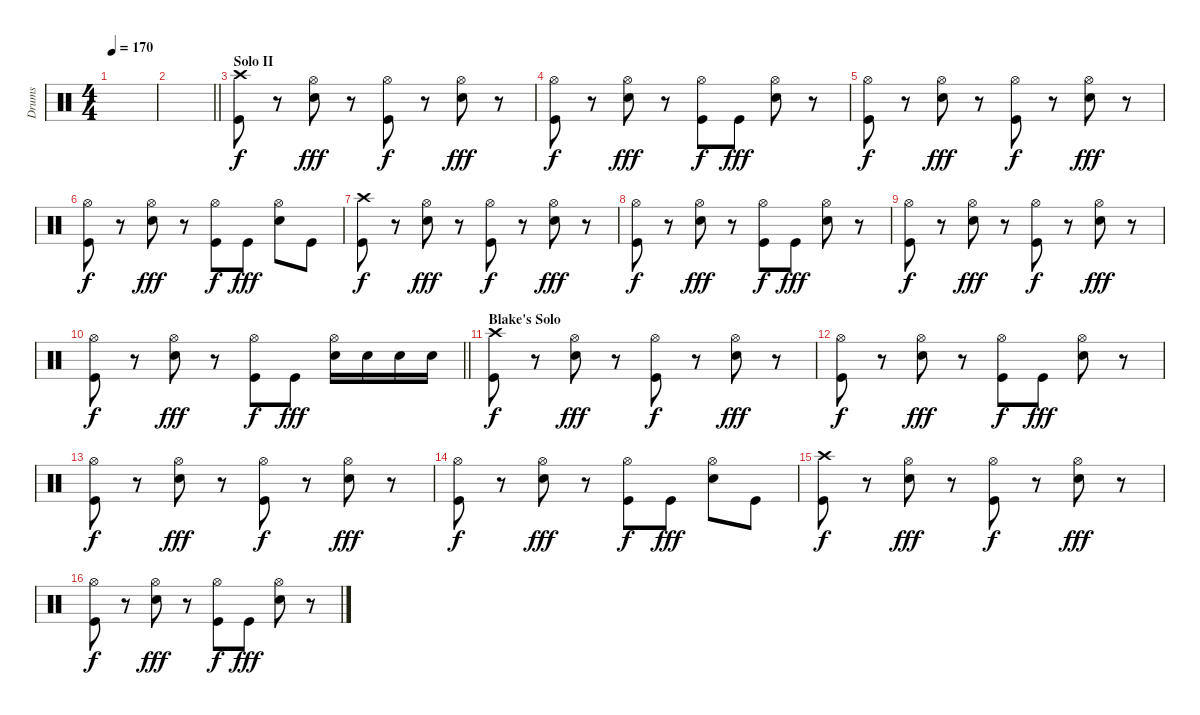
\track ("Drums" "Drums") {instrument percussion}
\staff {score}
\articulation defaults
\ts (4 4)
\tempo 170
\clef neutral
\ks c
|
\barLineRight lightlight
|
\section ("" "Solo II")
("Crash high (hit)" "Kick (hit)").8{dy f} r.8 ("Hi-Hat (open)" "Snare (hit) 2").8{dy fff} r.8 ("Hi-Hat (open)" "Kick (hit)").8{dy f} r.8 ("Hi-Hat (open)" "Snare (hit) 2").8{dy fff} r.8 |
("Hi-Hat (open)" "Kick (hit)").8{dy f} r.8 ("Hi-Hat (open)" "Snare (hit) 2").8{dy fff} r.8 ("Hi-Hat (open)" "Kick (hit)").8{dy f} "Kick (hit)".8{dy fff} ("Hi-Hat (open)" "Snare (hit) 2").8 r.8 |
("Hi-Hat (open)" "Kick (hit)").8{dy f} r.8 ("Hi-Hat (open)" "Snare (hit) 2").8{dy fff} r.8 ("Hi-Hat (open)" "Kick (hit)").8{dy f} r.8 ("Hi-Hat (open)" "Snare (hit) 2").8{dy fff} r.8 |
("Hi-Hat (open)" "Kick (hit)").8{dy f} r.8 ("Hi-Hat (open)" "Snare (hit) 2").8{dy fff} r.8 ("Hi-Hat (open)" "Kick (hit)").8{dy f} "Kick (hit)".8{dy fff} ("Hi-Hat (open)" "Snare (hit) 2").8 "Kick (hit)".8 |
("Crash high (hit)" "Kick (hit)").8{dy f} r.8 ("Hi-Hat (open)" "Snare (hit) 2").8{dy fff} r.8 ("Hi-Hat (open)" "Kick (hit)").8{dy f} r.8 ("Hi-Hat (open)" "Snare (hit) 2").8{dy fff} r.8 |
("Hi-Hat (open)" "Kick (hit)").8{dy f} r.8 ("Hi-Hat (open)" "Snare (hit) 2").8{dy fff} r.8 ("Hi-Hat (open)" "Kick (hit)").8{dy f} "Kick (hit)".8{dy fff} ("Hi-Hat (open)" "Snare (hit) 2").8 r.8 |
("Hi-Hat (open)" "Kick (hit)").8{dy f} r.8 ("Hi-Hat (open)" "Snare (hit) 2").8{dy fff} r.8 ("Hi-Hat (open)" "Kick (hit)").8{dy f} r.8 ("Hi-Hat (open)" "Snare (hit) 2").8{dy fff} r.8 |
\barLineRight lightlight
("Hi-Hat (open)" "Kick (hit)").8{dy f} r.8 ("Hi-Hat (open)" "Snare (hit) 2").8{dy fff} r.8 ("Hi-Hat (open)" "Kick (hit)").8{dy f} "Kick (hit)".8{dy fff} ("Hi-Hat (open)" "Snare (hit) 2").16 "Snare (hit) 2".16 "Snare (hit) 2".16 "Snare (hit) 2".16 |
\section ("" "Blake's Solo")
("Crash high (hit)" "Kick (hit)").8{dy f} r.8 ("Hi-Hat (open)" "Snare (hit) 2").8{dy fff} r.8 ("Hi-Hat (open)" "Kick (hit)").8{dy f} r.8 ("Hi-Hat (open)" "Snare (hit) 2").8{dy fff} r.8 |
("Hi-Hat (open)" "Kick (hit)").8{dy f} r.8 ("Hi-Hat (open)" "Snare (hit) 2").8{dy fff} r.8 ("Hi-Hat (open)" "Kick (hit)").8{dy f} "Kick (hit)".8{dy fff} ("Hi-Hat (open)" "Snare (hit) 2").8 r.8 |
("Hi-Hat (open)" "Kick (hit)").8{dy f} r.8 ("Hi-Hat (open)" "Snare (hit) 2").8{dy fff} r.8 ("Hi-Hat (open)" "Kick (hit)").8{dy f} r.8 ("Hi-Hat (open)" "Snare (hit) 2").8{dy fff} r.8 |
("Hi-Hat (open)" "Kick (hit)").8{dy f} r.8 ("Hi-Hat (open)" "Snare (hit) 2").8{dy fff} r.8 ("Hi-Hat (open)" "Kick (hit)").8{dy f} "Kick (hit)".8{dy fff} ("Hi-Hat (open)" "Snare (hit) 2").8 "Kick (hit)".8 |
("Crash high (hit)" "Kick (hit)").8{dy f} r.8 ("Hi-Hat (open)" "Snare (hit) 2").8{dy fff} r.8 ("Hi-Hat (open)" "Kick (hit)").8{dy f} r.8 ("Hi-Hat (open)" "Snare (hit) 2").8{dy fff} r.8 |
("Hi-Hat (open)" "Kick (hit)").8{dy f} r.8 ("Hi-Hat (open)" "Snare (hit) 2").8{dy fff} r.8 ("Hi-Hat (open)" "Kick (hit)").8{dy f} "Kick (hit)".8{dy fff} ("Hi-Hat (open)" "Snare (hit) 2").8 r.8
